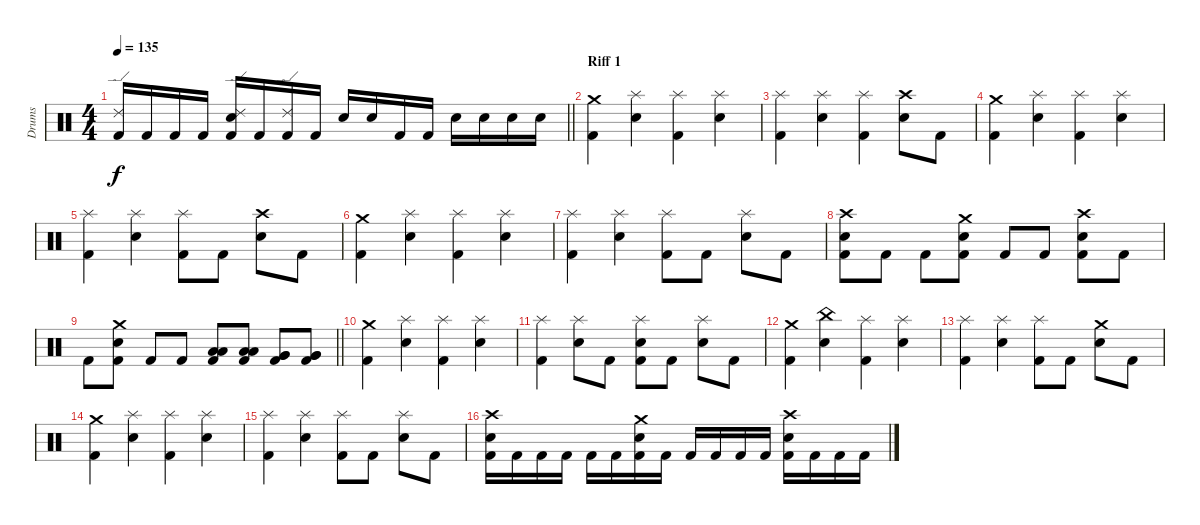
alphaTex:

\track ("Drums" "Drums") {instrument percussion}
\staff {score}
\articulation defaults
\ts (4 4)
\tempo 135
\clef neutral
\barLineRight lightlight
\ks c
("Kick (hit) 2" "Ride (edge) 2").16{dy f} "Kick (hit) 2".16 "Kick (hit) 2".16 "Kick (hit) 2".16 ("Kick (hit) 2" "Snare (hit) 2" "Ride (edge) 2").16 "Kick (hit) 2".16 ("Kick (hit) 2" "Ride (edge) 2").16 "Kick (hit) 2".16 "Snare (hit) 2".16 "Snare (hit) 2".16 "Kick (hit) 2".16 "Kick (hit) 2".16 "Snare (hit) 2".16 "Snare (hit) 2".16 "Snare (hit) 2".16 "Snare (hit) 2".16 |
\section ("" "Riff 1")
("Kick (hit) 2" "Crash medium (hit)").4 ("Snare (hit) 2" "Splash (hit)").4 ("Kick (hit) 2" "Splash (hit)").4 ("Snare (hit) 2" "Splash (hit)").4 |
("Kick (hit) 2" "Splash (hit)").4 ("Snare (hit) 2" "Splash (hit)").4 ("Kick (hit) 2" "Splash (hit)").4 ("Snare (hit) 2" "Crash high (hit)").8 "Kick (hit) 2".8 |
("Kick (hit) 2" "Crash medium (hit)").4 ("Snare (hit) 2" "Splash (hit)").4 ("Kick (hit) 2" "Splash (hit)").4 ("Snare (hit) 2" "Splash (hit)").4 |
("Kick (hit) 2" "Splash (hit)").4 ("Snare (hit) 2" "Splash (hit)").4 ("Kick (hit) 2" "Splash (hit)").8 "Kick (hit) 2".8 ("Snare (hit) 2" "Crash high (hit)").8 "Kick (hit) 2".8 |
("Kick (hit) 2" "Crash medium (hit)").4 ("Snare (hit) 2" "Splash (hit)").4 ("Kick (hit) 2" "Splash (hit)").4 ("Snare (hit) 2" "Splash (hit)").4 |
("Kick (hit) 2" "Splash (hit)").4 ("Snare (hit) 2" "Splash (hit)").4 ("Kick (hit) 2" "Splash (hit)").8 "Kick (hit) 2".8 ("Snare (hit) 2" "Splash (hit)").8 "Kick (hit) 2".8 |
("Kick (hit) 2" "Snare (hit) 2" "Crash high (hit)").8 "Kick (hit) 2".8 "Kick (hit) 2".8 ("Kick (hit) 2" "Snare (hit) 2" "Crash medium (hit)").8 "Kick (hit) 2".8 "Kick (hit) 2".8 ("Kick (hit) 2" "Snare (hit) 2" "Crash high (hit)").8 "Kick (hit) 2".8 |
\barLineRight lightlight "Kick (hit) 2".8
("Kick (hit) 2" "Snare (hit) 2" "Crash medium (hit)").8 "Kick (hit) 2".8 "Kick (hit) 2".8 ("Kick (hit) 2" "Low Tom (hit)" "Low Tom (hit)").8 ("Kick (hit) 2" "Low Tom (hit)" "Low Tom (hit)").8 ("Kick (hit) 2" "Very Low Tom (hit)" "Very Low Tom (hit)").8 ("Kick (hit) 2" "Very Low Tom (hit)" "Very Low Tom (hit)").8 |
\section ("" "")
("Kick (hit) 2" "Crash medium (hit)").4 ("Snare (hit) 2" "Splash (hit)").4 ("Kick (hit) 2" "Splash (hit)").4 ("Snare (hit) 2" "Splash (hit)").4 |
("Kick (hit) 2" "Splash (hit)").4 ("Snare (hit) 2" "Splash (hit)").8 "Kick (hit) 2".8 ("Kick (hit) 2" "Snare (hit) 2" "Splash (hit)").8 "Kick (hit) 2".8 ("Snare (hit) 2" "Splash (hit)").8 "Kick (hit) 2".8 |
("Kick (hit) 2" "Crash medium (hit)").4 ("Snare (hit) 2" "China (hit)").4 ("Kick (hit) 2" "Splash (hit)").4 ("Snare (hit) 2" "Splash (hit)").4 |
("Kick (hit) 2" "Splash (hit)").4 ("Snare (hit) 2" "Splash (hit)").4 ("Kick (hit) 2" "Splash (hit)").8 "Kick (hit) 2".8 ("Snare (hit) 2" "Crash medium (hit)").8 "Kick (hit) 2".8 |
("Kick (hit) 2" "Crash medium (hit)").4 ("Snare (hit) 2" "Splash (hit)").4 ("Kick (hit) 2" "Splash (hit)").4 ("Snare (hit) 2" "Splash (hit)").4 |
("Kick (hit) 2" "Splash (hit)").4 ("Snare (hit) 2" "Splash (hit)").4 ("Kick (hit) 2" "Splash (hit)").8 "Kick (hit) 2".8 ("Snare (hit) 2" "Splash (hit)").8 "Kick (hit) 2".8 |
("Kick (hit) 2" "Snare (hit) 2" "Crash high (hit)").16 "Kick (hit) 2".16 "Kick (hit) 2".16 "Kick (hit) 2".16 "Kick (hit) 2".16 "Kick (hit) 2".16 ("Kick (hit) 2" "Snare (hit) 2" "Crash medium (hit)").16 "Kick (hit) 2".16 "Kick (hit) 2".16 "Kick (hit) 2".16 "Kick (hit) 2".16 "Kick (hit) 2".16 ("Kick (hit) 2" "Snare (hit) 2" "Crash high (hit)").16 "Kick (hit) 2".16 "Kick (hit) 2".16 "Kick (hit) 2".16
